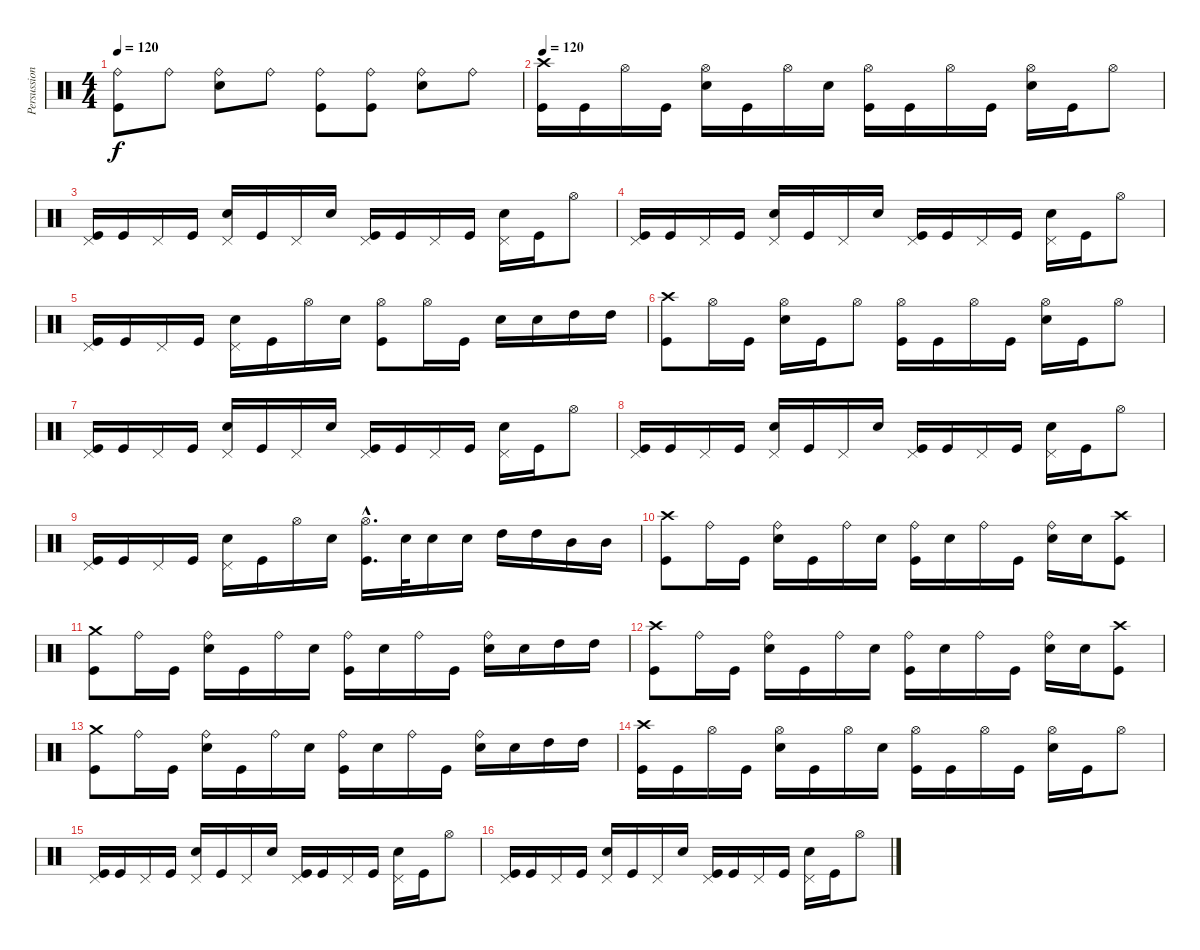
\track ("Persussion" "Persussion") {instrument percussion}
\staff {score}
\articulation defaults
\ts (4 4)
\tempo 120
\clef neutral
\ks c
("Ride (bell)" "Kick (hit)").8{dy f} "Ride (bell)".8 ("Ride (bell)" "Snare (hit) 2").8 "Ride (bell)".8 ("Ride (bell)" "Kick (hit)").8 ("Ride (bell)" "Kick (hit)").8 ("Ride (bell)" "Snare (hit) 2").8 "Ride (bell)".8 |
\tempo 120
("Crash high (hit)" "Kick (hit)").16 "Kick (hit)".16 "Hi-Hat (open)".16 "Kick (hit)".16 ("Hi-Hat (open)" "Snare (hit) 2").16 "Kick (hit)".16 "Hi-Hat (open)".16 "Snare (hit) 2".16 ("Hi-Hat (open)" "Kick (hit)").16 "Kick (hit)".16 "Hi-Hat (open)".16 "Kick (hit)".16 ("Hi-Hat (open)" "Snare (hit) 2").16 "Kick (hit)".16 "Hi-Hat (open)".8 |
("Pedal Hi-Hat (hit)" "Kick (hit)").16 "Kick (hit)".16 "Pedal Hi-Hat (hit)".16 "Kick (hit)".16 ("Pedal Hi-Hat (hit)" "Snare (hit) 2").16 "Kick (hit)".16 "Pedal Hi-Hat (hit)".16 "Snare (hit) 2".16 ("Pedal Hi-Hat (hit)" "Kick (hit)").16 "Kick (hit)".16 "Pedal Hi-Hat (hit)".16 "Kick (hit)".16 ("Pedal Hi-Hat (hit)" "Snare (hit) 2").16 "Kick (hit)".16 "Hi-Hat (open)".8 |
("Pedal Hi-Hat (hit)" "Kick (hit)").16 "Kick (hit)".16 "Pedal Hi-Hat (hit)".16 "Kick (hit)".16 ("Pedal Hi-Hat (hit)" "Snare (hit) 2").16 "Kick (hit)".16 "Pedal Hi-Hat (hit)".16 "Snare (hit) 2".16 ("Pedal Hi-Hat (hit)" "Kick (hit)").16 "Kick (hit)".16 "Pedal Hi-Hat (hit)".16 "Kick (hit)".16 ("Pedal Hi-Hat (hit)" "Snare (hit) 2").16 "Kick (hit)".16 "Hi-Hat (open)".8 |
("Pedal Hi-Hat (hit)" "Kick (hit)").16 "Kick (hit)".16 "Pedal Hi-Hat (hit)".16 "Kick (hit)".16 ("Pedal Hi-Hat (hit)" "Snare (hit) 2").16 "Kick (hit)".16 "Hi-Hat (open)".16 "Snare (hit) 2".16 ("Hi-Hat (open)" "Kick (hit)").8 "Hi-Hat (open)".16 "Kick (hit)".16 "Snare (hit) 2".16 "Snare (hit) 2".16 "High Tom (hit)".16 "High Tom (hit)".16 |
("Crash high (hit)" "Kick (hit)").8 "Hi-Hat (open)".16 "Kick (hit)".16 ("Hi-Hat (open)" "Snare (hit) 2").16 "Kick (hit)".16 "Hi-Hat (open)".8 ("Hi-Hat (open)" "Kick (hit)").16 "Kick (hit)".16 "Hi-Hat (open)".16 "Kick (hit)".16 ("Hi-Hat (open)" "Snare (hit) 2").16 "Kick (hit)".16 "Hi-Hat (open)".8 |
("Pedal Hi-Hat (hit)" "Kick (hit)").16 "Kick (hit)".16 "Pedal Hi-Hat (hit)".16 "Kick (hit)".16 ("Pedal Hi-Hat (hit)" "Snare (hit) 2").16 "Kick (hit)".16 "Pedal Hi-Hat (hit)".16 "Snare (hit) 2".16 ("Pedal Hi-Hat (hit)" "Kick (hit)").16 "Kick (hit)".16 "Pedal Hi-Hat (hit)".16 "Kick (hit)".16 ("Pedal Hi-Hat (hit)" "Snare (hit) 2").16 "Kick (hit)".16 "Hi-Hat (open)".8 |
("Pedal Hi-Hat (hit)" "Kick (hit)").16 "Kick (hit)".16 "Pedal Hi-Hat (hit)".16 "Kick (hit)".16 ("Pedal Hi-Hat (hit)" "Snare (hit) 2").16 "Kick (hit)".16 "Pedal Hi-Hat (hit)".16 "Snare (hit) 2".16 ("Pedal Hi-Hat (hit)" "Kick (hit)").16 "Kick (hit)".16 "Pedal Hi-Hat (hit)".16 "Kick (hit)".16 ("Pedal Hi-Hat (hit)" "Snare (hit) 2").16 "Kick (hit)".16 "Hi-Hat (open)".8 |
("Pedal Hi-Hat (hit)" "Kick (hit)").16 "Kick (hit)".16 "Pedal Hi-Hat (hit)".16 "Kick (hit)".16 ("Pedal Hi-Hat (hit)" "Snare (hit) 2").16 "Kick (hit)".16 "Hi-Hat (open)".16 "Snare (hit) 2".16 ("Hi-Hat (open)"{hac} "Kick (hit)"{hac}).16{d} "Snare (hit) 2".32 "Snare (hit) 2".16 "Snare (hit) 2".16 "High Tom (hit)".16 "High Tom (hit)".16 "Mid Tom (hit)".16 "Mid Tom (hit)".16 |
("Crash high (hit)" "Kick (hit)").8 "Ride (bell)".16 "Kick (hit)".16 ("Ride (bell)" "Snare (hit) 2").16 "Kick (hit)".16 "Ride (bell)".16 "Snare (hit) 2".16 ("Ride (bell)" "Kick (hit)").16 "Snare (hit) 2".16 "Ride (bell)".16 "Kick (hit)".16 ("Ride (bell)" "Snare (hit) 2").16 "Snare (hit) 2".16 ("Crash high (hit)" "Kick (hit)").8 |
("Crash medium (hit)" "Kick (hit)").8 "Ride (bell)".16 "Kick (hit)".16 ("Ride (bell)" "Snare (hit) 2").16 "Kick (hit)".16 "Ride (bell)".16 "Snare (hit) 2".16 ("Ride (bell)" "Kick (hit)").16 "Snare (hit) 2".16 "Ride (bell)".16 "Kick (hit)".16 ("Ride (bell)" "Snare (hit) 2").16 "Snare (hit) 2".16 "High Tom (hit)".16 "High Tom (hit)".16 |
("Crash high (hit)" "Kick (hit)").8 "Ride (bell)".16 "Kick (hit)".16 ("Ride (bell)" "Snare (hit) 2").16 "Kick (hit)".16 "Ride (bell)".16 "Snare (hit) 2".16 ("Ride (bell)" "Kick (hit)").16 "Snare (hit) 2".16 "Ride (bell)".16 "Kick (hit)".16 ("Ride (bell)" "Snare (hit) 2").16 "Snare (hit) 2".16 ("Crash high (hit)" "Kick (hit)").8 |
("Crash medium (hit)" "Kick (hit)").8 "Ride (bell)".16 "Kick (hit)".16 ("Ride (bell)" "Snare (hit) 2").16 "Kick (hit)".16 "Ride (bell)".16 "Snare (hit) 2".16 ("Ride (bell)" "Kick (hit)").16 "Snare (hit) 2".16 "Ride (bell)".16 "Kick (hit)".16 ("Ride (bell)" "Snare (hit) 2").16 "Snare (hit) 2".16 "High Tom (hit)".16 "High Tom (hit)".16 |
("Crash high (hit)" "Kick (hit)").16 "Kick (hit)".16 "Hi-Hat (open)".16 "Kick (hit)".16 ("Hi-Hat (open)" "Snare (hit) 2").16 "Kick (hit)".16 "Hi-Hat (open)".16 "Snare (hit) 2".16 ("Hi-Hat (open)" "Kick (hit)").16 "Kick (hit)".16 "Hi-Hat (open)".16 "Kick (hit)".16 ("Hi-Hat (open)" "Snare (hit) 2").16 "Kick (hit)".16 "Hi-Hat (open)".8 |
("Pedal Hi-Hat (hit)" "Kick (hit)").16 "Kick (hit)".16 "Pedal Hi-Hat (hit)".16 "Kick (hit)".16 ("Pedal Hi-Hat (hit)" "Snare (hit) 2").16 "Kick (hit)".16 "Pedal Hi-Hat (hit)".16 "Snare (hit) 2".16 ("Pedal Hi-Hat (hit)" "Kick (hit)").16 "Kick (hit)".16 "Pedal Hi-Hat (hit)".16 "Kick (hit)".16 ("Pedal Hi-Hat (hit)" "Snare (hit) 2").16 "Kick (hit)".16 "Hi-Hat (open)".8 |
("Pedal Hi-Hat (hit)" "Kick (hit)").16 "Kick (hit)".16 "Pedal Hi-Hat (hit)".16 "Kick (hit)".16 ("Pedal Hi-Hat (hit)" "Snare (hit) 2").16 "Kick (hit)".16 "Pedal Hi-Hat (hit)".16 "Snare (hit) 2".16 ("Pedal Hi-Hat (hit)" "Kick (hit)").16 "Kick (hit)".16 "Pedal Hi-Hat (hit)".16 "Kick (hit)".16 ("Pedal Hi-Hat (hit)" "Snare (hit) 2").16 "Kick (hit)".16 "Hi-Hat (open)".8
